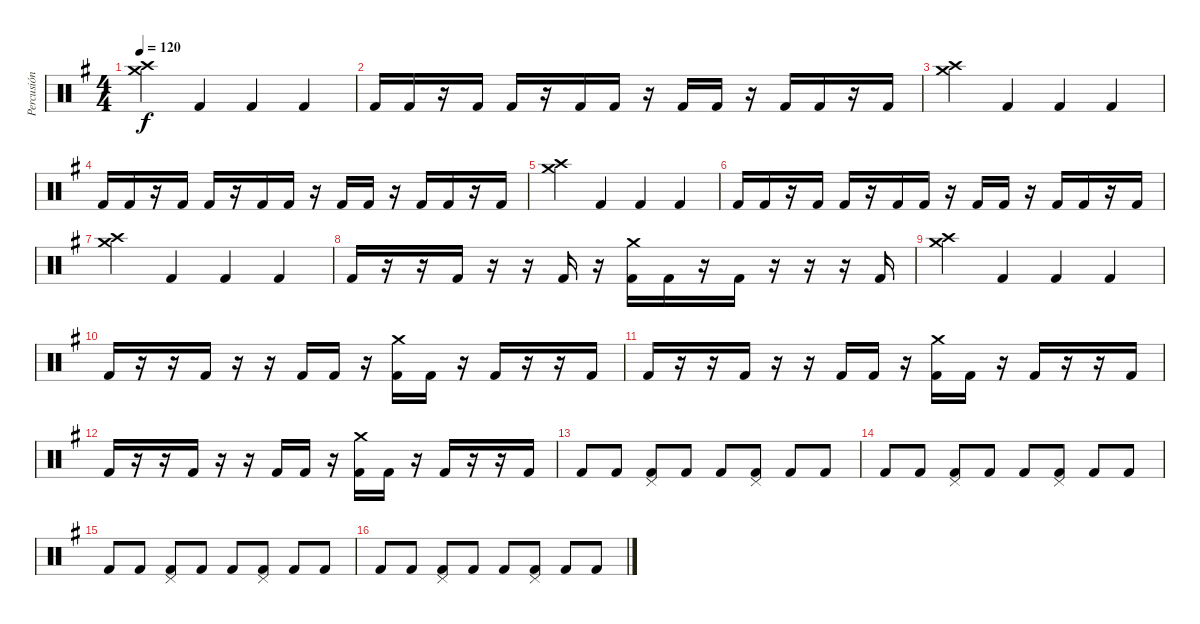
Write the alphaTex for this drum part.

\track ("Percusión" "Percusión") {instrument percussion}
\staff {score}
\articulation defaults
\ts (4 4)
\tempo 120
\clef neutral
\ks g
("Crash medium (hit)" "Crash high (hit)").4{dy f} "Kick (hit) 2".4 "Kick (hit) 2".4 "Kick (hit) 2".4 |
"Kick (hit) 2".16 "Kick (hit) 2".16 r.16 "Kick (hit) 2".16 "Kick (hit) 2".16 r.16 "Kick (hit) 2".16 "Kick (hit) 2".16 r.16 "Kick (hit) 2".16 "Kick (hit) 2".16 r.16 "Kick (hit) 2".16 "Kick (hit) 2".16 r.16 "Kick (hit) 2".16 |
("Crash medium (hit)" "Crash high (hit)").4 "Kick (hit) 2".4 "Kick (hit) 2".4 "Kick (hit) 2".4 |
"Kick (hit) 2".16 "Kick (hit) 2".16 r.16 "Kick (hit) 2".16 "Kick (hit) 2".16 r.16 "Kick (hit) 2".16 "Kick (hit) 2".16 r.16 "Kick (hit) 2".16 "Kick (hit) 2".16 r.16 "Kick (hit) 2".16 "Kick (hit) 2".16 r.16 "Kick (hit) 2".16 |
("Crash medium (hit)" "Crash high (hit)").4 "Kick (hit) 2".4 "Kick (hit) 2".4 "Kick (hit) 2".4 |
"Kick (hit) 2".16 "Kick (hit) 2".16 r.16 "Kick (hit) 2".16 "Kick (hit) 2".16 r.16 "Kick (hit) 2".16 "Kick (hit) 2".16 r.16 "Kick (hit) 2".16 "Kick (hit) 2".16 r.16 "Kick (hit) 2".16 "Kick (hit) 2".16 r.16 "Kick (hit) 2".16 |
("Crash medium (hit)" "Crash high (hit)").4 "Kick (hit) 2".4 "Kick (hit) 2".4 "Kick (hit) 2".4 |
"Kick (hit) 2".16 r.16 r.16 "Kick (hit) 2".16 r.16 r.16 "Kick (hit) 2".16 r.16 ("Crash medium (hit)" "Kick (hit) 2").16 "Kick (hit) 2".16 r.16 "Kick (hit) 2".16 r.16 r.16 r.16 "Kick (hit) 2".16 |
("Crash medium (hit)" "Crash high (hit)").4 "Kick (hit) 2".4 "Kick (hit) 2".4 "Kick (hit) 2".4 |
"Kick (hit) 2".16 r.16 r.16 "Kick (hit) 2".16 r.16 r.16 "Kick (hit) 2".16 "Kick (hit) 2".16 r.16 ("Crash medium (hit)" "Kick (hit) 2").16 "Kick (hit) 2".16 r.16 "Kick (hit) 2".16 r.16 r.16 "Kick (hit) 2".16 |
"Kick (hit) 2".16 r.16 r.16 "Kick (hit) 2".16 r.16 r.16 "Kick (hit) 2".16 "Kick (hit) 2".16 r.16 ("Crash medium (hit)" "Kick (hit) 2").16 "Kick (hit) 2".16 r.16 "Kick (hit) 2".16 r.16 r.16 "Kick (hit) 2".16 |
"Kick (hit) 2".16 r.16 r.16 "Kick (hit) 2".16 r.16 r.16 "Kick (hit) 2".16 "Kick (hit) 2".16 r.16 ("Crash medium (hit)" "Kick (hit) 2").16 "Kick (hit) 2".16 r.16 "Kick (hit) 2".16 r.16 r.16 "Kick (hit) 2".16 |
"Kick (hit) 2".8 "Kick (hit) 2".8 ("Pedal Hi-Hat (hit)" "Kick (hit) 2").8 "Kick (hit) 2".8 "Kick (hit) 2".8 ("Pedal Hi-Hat (hit)" "Kick (hit) 2").8 "Kick (hit) 2".8 "Kick (hit) 2".8 |
"Kick (hit) 2".8 "Kick (hit) 2".8 ("Pedal Hi-Hat (hit)" "Kick (hit) 2").8 "Kick (hit) 2".8 "Kick (hit) 2".8 ("Pedal Hi-Hat (hit)" "Kick (hit) 2").8 "Kick (hit) 2".8 "Kick (hit) 2".8 |
"Kick (hit) 2".8 "Kick (hit) 2".8 ("Pedal Hi-Hat (hit)" "Kick (hit) 2").8 "Kick (hit) 2".8 "Kick (hit) 2".8 ("Pedal Hi-Hat (hit)" "Kick (hit) 2").8 "Kick (hit) 2".8 "Kick (hit) 2".8 |
"Kick (hit) 2".8 "Kick (hit) 2".8 ("Pedal Hi-Hat (hit)" "Kick (hit) 2").8 "Kick (hit) 2".8 "Kick (hit) 2".8 ("Pedal Hi-Hat (hit)" "Kick (hit) 2").8 "Kick (hit) 2".8 "Kick (hit) 2".8
